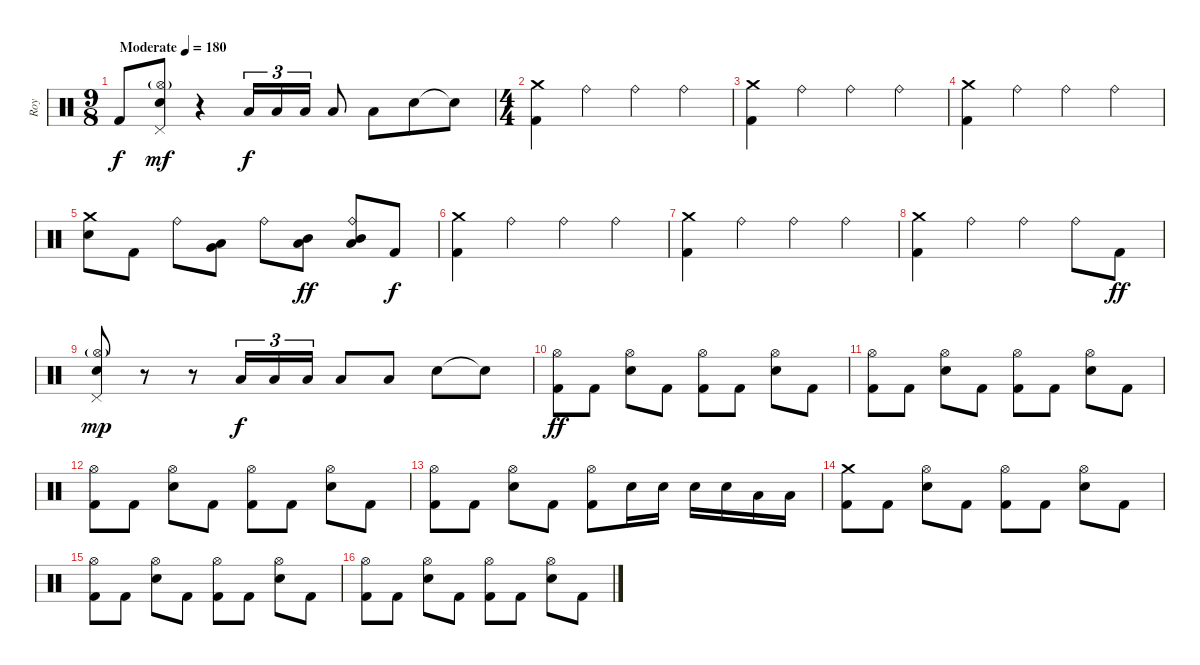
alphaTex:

\track ("Roy" "Roy") {instrument percussion}
\staff {score}
\articulation defaults
\ts (9 8)
\tempo (180 "Moderate")
\clef neutral
\ks c "Kick (hit) 2".8{dy f}
("Pedal Hi-Hat (hit)" "Hi-Hat (open)"{g} "Electric Snare (hit)").8{dy mf} r.4 "Low Tom (hit)".16{tu (3 2) dy f} "Low Tom (hit)".16{tu (3 2)} "Low Tom (hit)".16{tu (3 2)} "Low Tom (hit)".8 "Low Tom (hit)".8 "Electric Snare (hit)".8 "Snare (hit)"{t}.8 |
\ts (4 4)
("Crash medium (hit)" "Kick (hit) 2").4 "Ride (bell)".4 "Ride (bell)".4 "Ride (bell)".4 |
("Crash medium (hit)" "Kick (hit) 2").4 "Ride (bell)".4 "Ride (bell)".4 "Ride (bell)".4 |
("Crash medium (hit)" "Kick (hit) 2").4 "Ride (bell)".4 "Ride (bell)".4 "Ride (bell)".4 |
("Crash medium (hit)" "Electric Snare (hit)").8 "Kick (hit) 2".8 "Ride (bell)".8 ("Very Low Tom (hit)" "Low Tom (hit)").8 "Ride (bell)".8 ("Mid Tom (hit)" "Low Tom (hit)").8{dy ff} ("Ride (bell)" "Mid Tom (hit)" "Low Tom (hit)").8 "Kick (hit) 2".8{dy f} |
("Crash medium (hit)" "Kick (hit) 2").4 "Ride (bell)".4 "Ride (bell)".4 "Ride (bell)".4 |
("Crash medium (hit)" "Kick (hit) 2").4 "Ride (bell)".4 "Ride (bell)".4 "Ride (bell)".4 |
("Crash medium (hit)" "Kick (hit) 2").4 "Ride (bell)".4 "Ride (bell)".4 "Ride (bell)".8 "Kick (hit) 2".8{dy ff} |
("Pedal Hi-Hat (hit)" "Hi-Hat (open)"{g} "Electric Snare (hit)").8{dy mp} r.8 r.8 "Low Tom (hit)".16{tu (3 2) dy f} "Low Tom (hit)".16{tu (3 2)} "Low Tom (hit)".16{tu (3 2)} "Low Tom (hit)".8 "Low Tom (hit)".8 "Electric Snare (hit)".8 "Snare (hit)"{t}.8 |
("Hi-Hat (open)" "Kick (hit) 2").8{dy ff} "Kick (hit) 2".8 ("Hi-Hat (open)" "Electric Snare (hit)").8 "Kick (hit) 2".8 ("Hi-Hat (open)" "Kick (hit) 2").8 "Kick (hit) 2".8 ("Hi-Hat (open)" "Electric Snare (hit)").8 "Kick (hit) 2".8 |
("Hi-Hat (open)" "Kick (hit) 2").8 "Kick (hit) 2".8 ("Hi-Hat (open)" "Electric Snare (hit)").8 "Kick (hit) 2".8 ("Hi-Hat (open)" "Kick (hit) 2").8 "Kick (hit) 2".8 ("Hi-Hat (open)" "Electric Snare (hit)").8 "Kick (hit) 2".8 |
("Hi-Hat (open)" "Kick (hit) 2").8 "Kick (hit) 2".8 ("Hi-Hat (open)" "Electric Snare (hit)").8 "Kick (hit) 2".8 ("Hi-Hat (open)" "Kick (hit) 2").8 "Kick (hit) 2".8 ("Hi-Hat (open)" "Electric Snare (hit)").8 "Kick (hit) 2".8 |
("Hi-Hat (open)" "Kick (hit) 2").8 "Kick (hit) 2".8 ("Hi-Hat (open)" "Electric Snare (hit)").8 "Kick (hit) 2".8 ("Hi-Hat (open)" "Kick (hit) 2").8 "Electric Snare (hit)".16 "Electric Snare (hit)".16 "Electric Snare (hit)".16 "Electric Snare (hit)".16 "Low Tom (hit)".16 "Low Tom (hit)".16 |
("Crash medium (hit)" "Kick (hit) 2").8 "Kick (hit) 2".8 ("Hi-Hat (open)" "Electric Snare (hit)").8 "Kick (hit) 2".8 ("Hi-Hat (open)" "Kick (hit) 2").8 "Kick (hit) 2".8 ("Hi-Hat (open)" "Electric Snare (hit)").8 "Kick (hit) 2".8 |
("Hi-Hat (open)" "Kick (hit) 2").8 "Kick (hit) 2".8 ("Hi-Hat (open)" "Electric Snare (hit)").8 "Kick (hit) 2".8 ("Hi-Hat (open)" "Kick (hit) 2").8 "Kick (hit) 2".8 ("Hi-Hat (open)" "Electric Snare (hit)").8 "Kick (hit) 2".8 |
("Hi-Hat (open)" "Kick (hit) 2").8 "Kick (hit) 2".8 ("Hi-Hat (open)" "Electric Snare (hit)").8 "Kick (hit) 2".8 ("Hi-Hat (open)" "Kick (hit) 2").8 "Kick (hit) 2".8 ("Hi-Hat (open)" "Electric Snare (hit)").8 "Kick (hit) 2".8
